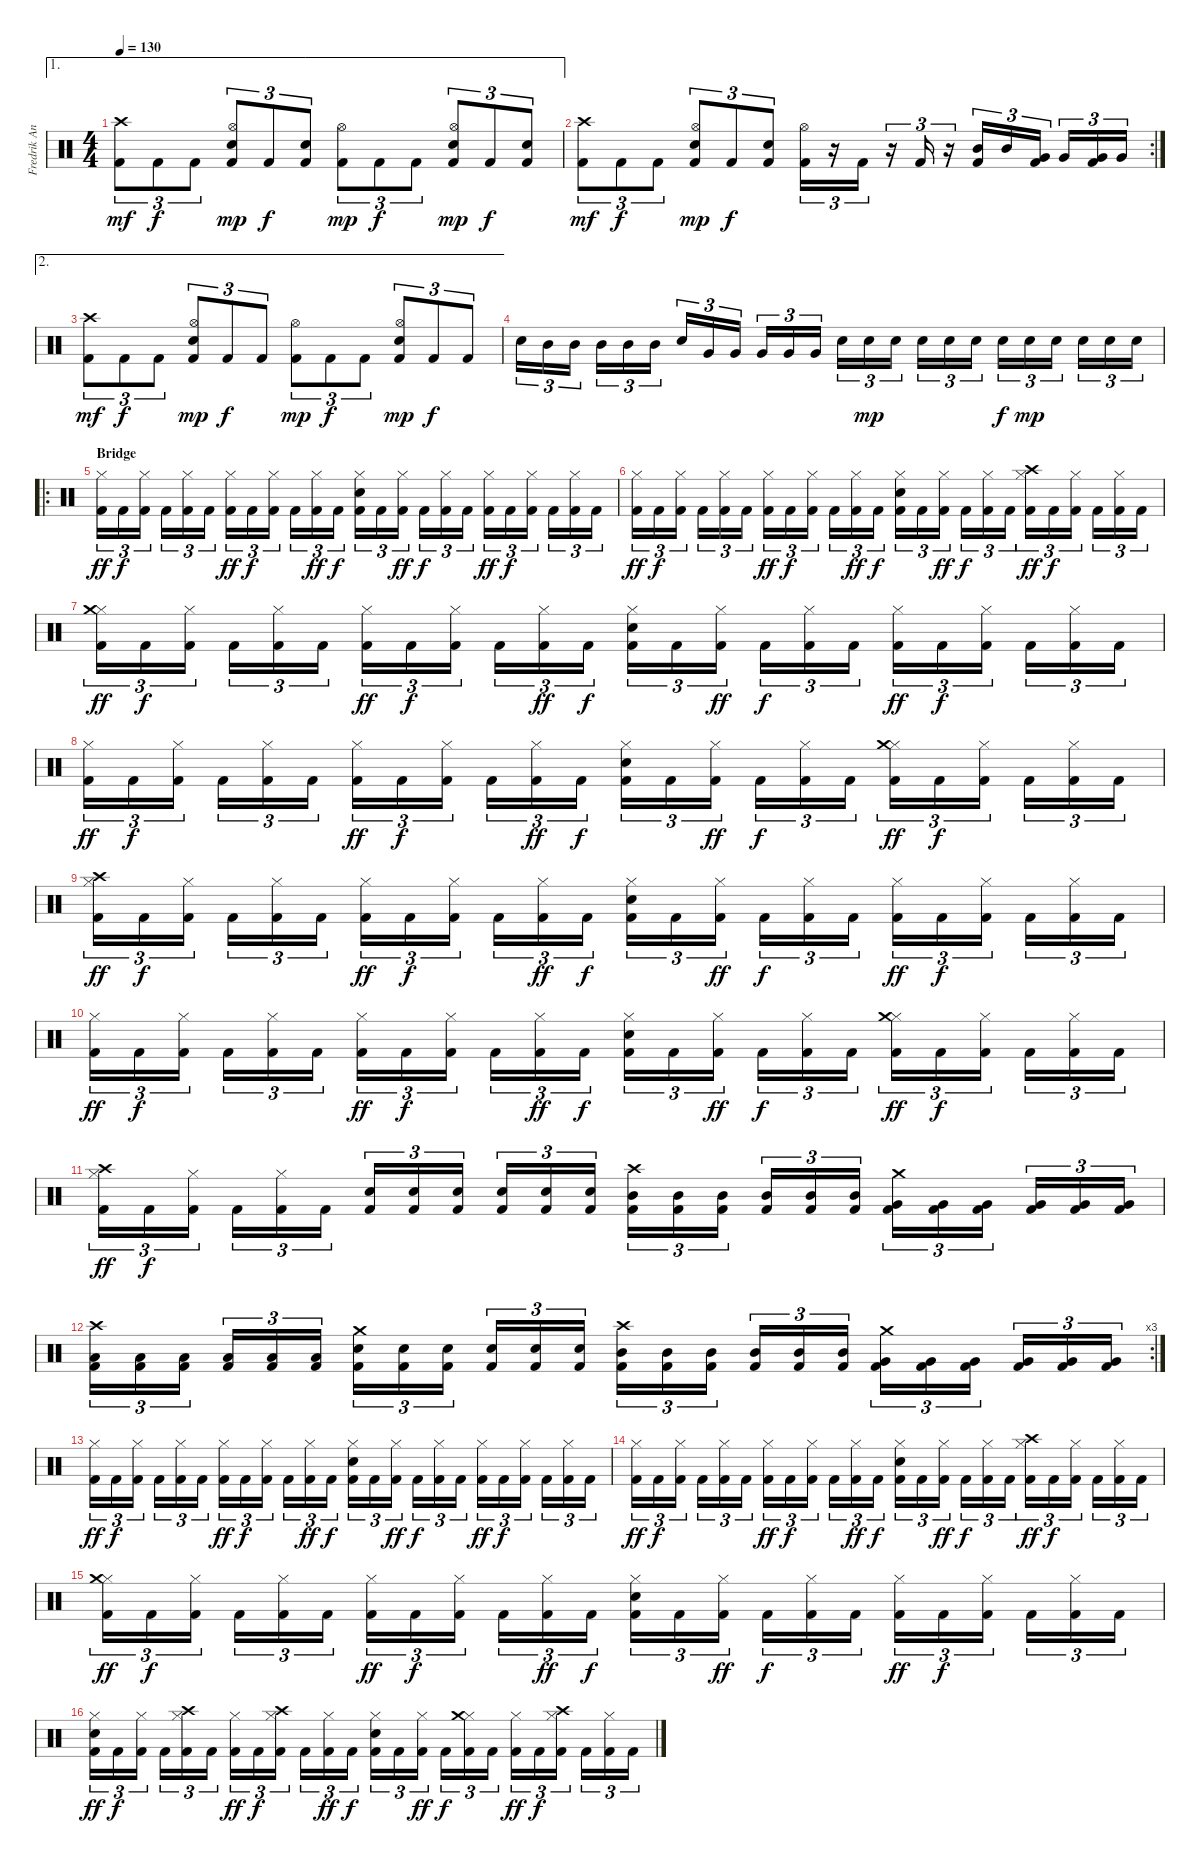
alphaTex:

\track ("Fredrik Andersson" "Fredrik An") {instrument percussion}
\staff {score}
\articulation defaults
\ae 1
\ts (4 4)
\tempo 130
\clef neutral
\ks c
("Crash high (hit)" "Kick (hit) 2").8{tu (3 2) dy mf} "Kick (hit) 2".8{tu (3 2) dy f} "Kick (hit) 2".8{tu (3 2)} ("Hi-Hat (open)" "Snare (hit) 2" "Kick (hit) 2").8{tu (3 2) dy mp} "Kick (hit) 2".8{tu (3 2) dy f} ("Snare (hit) 2" "Kick (hit) 2").8{tu (3 2)} ("Hi-Hat (open)" "Kick (hit) 2").8{tu (3 2) dy mp} "Kick (hit) 2".8{tu (3 2) dy f} "Kick (hit) 2".8{tu (3 2)} ("Hi-Hat (open)" "Snare (hit) 2" "Kick (hit) 2").8{tu (3 2) dy mp} "Kick (hit) 2".8{tu (3 2) dy f} ("Snare (hit) 2" "Kick (hit) 2").8{tu (3 2)} |
\rc 2
("Crash high (hit)" "Kick (hit) 2").8{tu (3 2) dy mf} "Kick (hit) 2".8{tu (3 2) dy f} "Kick (hit) 2".8{tu (3 2)} ("Hi-Hat (open)" "Snare (hit) 2" "Kick (hit) 2").8{tu (3 2) dy mp} "Kick (hit) 2".8{tu (3 2) dy f} ("Snare (hit) 2" "Kick (hit) 2").8{tu (3 2)} ("Hi-Hat (open)" "Kick (hit) 2").16{tu (3 2)} r.16{tu (3 2)} "Kick (hit) 2".16{tu (3 2)} r.16{tu (3 2)} "Kick (hit) 2".16{tu (3 2)} r.16{tu (3 2)} ("Mid Tom (hit)" "Kick (hit) 2").16{tu (3 2)} "Mid Tom (hit)".16{tu (3 2)} ("Very Low Tom (hit)" "Kick (hit) 2").16{tu (3 2)} "Very Low Tom (hit)".16{tu (3 2)} ("Very Low Tom (hit)" "Kick (hit) 2").16{tu (3 2)} "Very Low Tom (hit)".16{tu (3 2)} |
\ae 2
("Crash high (hit)" "Kick (hit) 2").8{tu (3 2) dy mf} "Kick (hit) 2".8{tu (3 2) dy f} "Kick (hit) 2".8{tu (3 2)} ("Hi-Hat (open)" "Snare (hit) 2" "Kick (hit) 2").8{tu (3 2) dy mp} "Kick (hit) 2".8{tu (3 2) dy f} "Kick (hit) 2".8{tu (3 2)} ("Hi-Hat (open)" "Kick (hit) 2").8{tu (3 2) dy mp} "Kick (hit) 2".8{tu (3 2) dy f} "Kick (hit) 2".8{tu (3 2)} ("Hi-Hat (open)" "Snare (hit) 2" "Kick (hit) 2").8{tu (3 2) dy mp} "Kick (hit) 2".8{tu (3 2) dy f} "Kick (hit) 2".8{tu (3 2)} |
"Snare (hit) 2".16{tu (3 2)} "Mid Tom (hit)".16{tu (3 2)} "Mid Tom (hit)".16{tu (3 2)} "Mid Tom (hit)".16{tu (3 2)} "Mid Tom (hit)".16{tu (3 2)} "Mid Tom (hit)".16{tu (3 2)} "Snare (hit) 2".16{tu (3 2)} "Very Low Tom (hit)".16{tu (3 2)} "Very Low Tom (hit)".16{tu (3 2)} "Very Low Tom (hit)".16{tu (3 2)} "Very Low Tom (hit)".16{tu (3 2)} "Very Low Tom (hit)".16{tu (3 2)} "Snare (hit) 2".16{tu (3 2)} "Snare (hit) 2".16{tu (3 2) dy mp} "Snare (hit) 2".16{tu (3 2)} "Snare (hit) 2".16{tu (3 2)} "Snare (hit) 2".16{tu (3 2)} "Snare (hit) 2".16{tu (3 2)} "Snare (hit) 2".16{tu (3 2) dy f} "Snare (hit) 2".16{tu (3 2) dy mp} "Snare (hit) 2".16{tu (3 2)} "Snare (hit) 2".16{tu (3 2)} "Snare (hit) 2".16{tu (3 2)} "Snare (hit) 2".16{tu (3 2)} |
\ro
\section ("" "Bridge")
("Hi-Hat (closed)" "Kick (hit) 2").16{tu (3 2) dy ff} "Kick (hit) 2".16{tu (3 2) dy f} ("Hi-Hat (closed)" "Kick (hit) 2").16{tu (3 2)} "Kick (hit) 2".16{tu (3 2)} ("Hi-Hat (closed)" "Kick (hit) 2").16{tu (3 2)} "Kick (hit) 2".16{tu (3 2)} ("Hi-Hat (closed)" "Kick (hit) 2").16{tu (3 2) dy ff} "Kick (hit) 2".16{tu (3 2) dy f} ("Hi-Hat (closed)" "Kick (hit) 2").16{tu (3 2)} "Kick (hit) 2".16{tu (3 2)} ("Hi-Hat (closed)" "Kick (hit) 2").16{tu (3 2) dy ff} "Kick (hit) 2".16{tu (3 2) dy f} ("Hi-Hat (closed)" "Snare (hit) 2" "Kick (hit) 2").16{tu (3 2)} "Kick (hit) 2".16{tu (3 2)} ("Hi-Hat (closed)" "Kick (hit) 2").16{tu (3 2) dy ff} "Kick (hit) 2".16{tu (3 2) dy f} ("Hi-Hat (closed)" "Kick (hit) 2").16{tu (3 2)} "Kick (hit) 2".16{tu (3 2)} ("Hi-Hat (closed)" "Kick (hit) 2").16{tu (3 2) dy ff} "Kick (hit) 2".16{tu (3 2) dy f} ("Hi-Hat (closed)" "Kick (hit) 2").16{tu (3 2)} "Kick (hit) 2".16{tu (3 2)} ("Hi-Hat (closed)" "Kick (hit) 2").16{tu (3 2)} "Kick (hit) 2".16{tu (3 2)} |
("Hi-Hat (closed)" "Kick (hit) 2").16{tu (3 2) dy ff} "Kick (hit) 2".16{tu (3 2) dy f} ("Hi-Hat (closed)" "Kick (hit) 2").16{tu (3 2)} "Kick (hit) 2".16{tu (3 2)} ("Hi-Hat (closed)" "Kick (hit) 2").16{tu (3 2)} "Kick (hit) 2".16{tu (3 2)} ("Hi-Hat (closed)" "Kick (hit) 2").16{tu (3 2) dy ff} "Kick (hit) 2".16{tu (3 2) dy f} ("Hi-Hat (closed)" "Kick (hit) 2").16{tu (3 2)} "Kick (hit) 2".16{tu (3 2)} ("Hi-Hat (closed)" "Kick (hit) 2").16{tu (3 2) dy ff} "Kick (hit) 2".16{tu (3 2) dy f} ("Hi-Hat (closed)" "Snare (hit) 2" "Kick (hit) 2").16{tu (3 2)} "Kick (hit) 2".16{tu (3 2)} ("Hi-Hat (closed)" "Kick (hit) 2").16{tu (3 2) dy ff} "Kick (hit) 2".16{tu (3 2) dy f} ("Hi-Hat (closed)" "Kick (hit) 2").16{tu (3 2)} "Kick (hit) 2".16{tu (3 2)} ("Hi-Hat (closed)" "Crash high (hit)" "Kick (hit) 2").16{tu (3 2) dy ff} "Kick (hit) 2".16{tu (3 2) dy f} ("Hi-Hat (closed)" "Kick (hit) 2").16{tu (3 2)} "Kick (hit) 2".16{tu (3 2)} ("Hi-Hat (closed)" "Kick (hit) 2").16{tu (3 2)} "Kick (hit) 2".16{tu (3 2)} |
("Hi-Hat (closed)" "Crash medium (hit)" "Kick (hit) 2").16{tu (3 2) dy ff} "Kick (hit) 2".16{tu (3 2) dy f} ("Hi-Hat (closed)" "Kick (hit) 2").16{tu (3 2)} "Kick (hit) 2".16{tu (3 2)} ("Hi-Hat (closed)" "Kick (hit) 2").16{tu (3 2)} "Kick (hit) 2".16{tu (3 2)} ("Hi-Hat (closed)" "Kick (hit) 2").16{tu (3 2) dy ff} "Kick (hit) 2".16{tu (3 2) dy f} ("Hi-Hat (closed)" "Kick (hit) 2").16{tu (3 2)} "Kick (hit) 2".16{tu (3 2)} ("Hi-Hat (closed)" "Kick (hit) 2").16{tu (3 2) dy ff} "Kick (hit) 2".16{tu (3 2) dy f} ("Hi-Hat (closed)" "Snare (hit) 2" "Kick (hit) 2").16{tu (3 2)} "Kick (hit) 2".16{tu (3 2)} ("Hi-Hat (closed)" "Kick (hit) 2").16{tu (3 2) dy ff} "Kick (hit) 2".16{tu (3 2) dy f} ("Hi-Hat (closed)" "Kick (hit) 2").16{tu (3 2)} "Kick (hit) 2".16{tu (3 2)} ("Hi-Hat (closed)" "Kick (hit) 2").16{tu (3 2) dy ff} "Kick (hit) 2".16{tu (3 2) dy f} ("Hi-Hat (closed)" "Kick (hit) 2").16{tu (3 2)} "Kick (hit) 2".16{tu (3 2)} ("Hi-Hat (closed)" "Kick (hit) 2").16{tu (3 2)} "Kick (hit) 2".16{tu (3 2)} |
("Hi-Hat (closed)" "Kick (hit) 2").16{tu (3 2) dy ff} "Kick (hit) 2".16{tu (3 2) dy f} ("Hi-Hat (closed)" "Kick (hit) 2").16{tu (3 2)} "Kick (hit) 2".16{tu (3 2)} ("Hi-Hat (closed)" "Kick (hit) 2").16{tu (3 2)} "Kick (hit) 2".16{tu (3 2)} ("Hi-Hat (closed)" "Kick (hit) 2").16{tu (3 2) dy ff} "Kick (hit) 2".16{tu (3 2) dy f} ("Hi-Hat (closed)" "Kick (hit) 2").16{tu (3 2)} "Kick (hit) 2".16{tu (3 2)} ("Hi-Hat (closed)" "Kick (hit) 2").16{tu (3 2) dy ff} "Kick (hit) 2".16{tu (3 2) dy f} ("Hi-Hat (closed)" "Snare (hit) 2" "Kick (hit) 2").16{tu (3 2)} "Kick (hit) 2".16{tu (3 2)} ("Hi-Hat (closed)" "Kick (hit) 2").16{tu (3 2) dy ff} "Kick (hit) 2".16{tu (3 2) dy f} ("Hi-Hat (closed)" "Kick (hit) 2").16{tu (3 2)} "Kick (hit) 2".16{tu (3 2)} ("Hi-Hat (closed)" "Crash medium (hit)" "Kick (hit) 2").16{tu (3 2) dy ff} "Kick (hit) 2".16{tu (3 2) dy f} ("Hi-Hat (closed)" "Kick (hit) 2").16{tu (3 2)} "Kick (hit) 2".16{tu (3 2)} ("Hi-Hat (closed)" "Kick (hit) 2").16{tu (3 2)} "Kick (hit) 2".16{tu (3 2)} |
("Hi-Hat (closed)" "Crash high (hit)" "Kick (hit) 2").16{tu (3 2) dy ff} "Kick (hit) 2".16{tu (3 2) dy f} ("Hi-Hat (closed)" "Kick (hit) 2").16{tu (3 2)} "Kick (hit) 2".16{tu (3 2)} ("Hi-Hat (closed)" "Kick (hit) 2").16{tu (3 2)} "Kick (hit) 2".16{tu (3 2)} ("Hi-Hat (closed)" "Kick (hit) 2").16{tu (3 2) dy ff} "Kick (hit) 2".16{tu (3 2) dy f} ("Hi-Hat (closed)" "Kick (hit) 2").16{tu (3 2)} "Kick (hit) 2".16{tu (3 2)} ("Hi-Hat (closed)" "Kick (hit) 2").16{tu (3 2) dy ff} "Kick (hit) 2".16{tu (3 2) dy f} ("Hi-Hat (closed)" "Snare (hit) 2" "Kick (hit) 2").16{tu (3 2)} "Kick (hit) 2".16{tu (3 2)} ("Hi-Hat (closed)" "Kick (hit) 2").16{tu (3 2) dy ff} "Kick (hit) 2".16{tu (3 2) dy f} ("Hi-Hat (closed)" "Kick (hit) 2").16{tu (3 2)} "Kick (hit) 2".16{tu (3 2)} ("Hi-Hat (closed)" "Kick (hit) 2").16{tu (3 2) dy ff} "Kick (hit) 2".16{tu (3 2) dy f} ("Hi-Hat (closed)" "Kick (hit) 2").16{tu (3 2)} "Kick (hit) 2".16{tu (3 2)} ("Hi-Hat (closed)" "Kick (hit) 2").16{tu (3 2)} "Kick (hit) 2".16{tu (3 2)} |
("Hi-Hat (closed)" "Kick (hit) 2").16{tu (3 2) dy ff} "Kick (hit) 2".16{tu (3 2) dy f} ("Hi-Hat (closed)" "Kick (hit) 2").16{tu (3 2)} "Kick (hit) 2".16{tu (3 2)} ("Hi-Hat (closed)" "Kick (hit) 2").16{tu (3 2)} "Kick (hit) 2".16{tu (3 2)} ("Hi-Hat (closed)" "Kick (hit) 2").16{tu (3 2) dy ff} "Kick (hit) 2".16{tu (3 2) dy f} ("Hi-Hat (closed)" "Kick (hit) 2").16{tu (3 2)} "Kick (hit) 2".16{tu (3 2)} ("Hi-Hat (closed)" "Kick (hit) 2").16{tu (3 2) dy ff} "Kick (hit) 2".16{tu (3 2) dy f} ("Hi-Hat (closed)" "Snare (hit) 2" "Kick (hit) 2").16{tu (3 2)} "Kick (hit) 2".16{tu (3 2)} ("Hi-Hat (closed)" "Kick (hit) 2").16{tu (3 2) dy ff} "Kick (hit) 2".16{tu (3 2) dy f} ("Hi-Hat (closed)" "Kick (hit) 2").16{tu (3 2)} "Kick (hit) 2".16{tu (3 2)} ("Hi-Hat (closed)" "Crash medium (hit)" "Kick (hit) 2").16{tu (3 2) dy ff} "Kick (hit) 2".16{tu (3 2) dy f} ("Hi-Hat (closed)" "Kick (hit) 2").16{tu (3 2)} "Kick (hit) 2".16{tu (3 2)} ("Hi-Hat (closed)" "Kick (hit) 2").16{tu (3 2)} "Kick (hit) 2".16{tu (3 2)} |
("Hi-Hat (closed)" "Crash high (hit)" "Kick (hit) 2").16{tu (3 2) dy ff} "Kick (hit) 2".16{tu (3 2) dy f} ("Hi-Hat (closed)" "Kick (hit) 2").16{tu (3 2)} "Kick (hit) 2".16{tu (3 2)} ("Hi-Hat (closed)" "Kick (hit) 2").16{tu (3 2)} "Kick (hit) 2".16{tu (3 2)} ("Snare (hit) 2" "Kick (hit) 2").16{tu (3 2)} ("Snare (hit) 2" "Kick (hit) 2").16{tu (3 2)} ("Snare (hit) 2" "Kick (hit) 2").16{tu (3 2)} ("Snare (hit) 2" "Kick (hit) 2").16{tu (3 2)} ("Snare (hit) 2" "Kick (hit) 2").16{tu (3 2)} ("Snare (hit) 2" "Kick (hit) 2").16{tu (3 2)} ("Crash high (hit)" "Mid Tom (hit)" "Kick (hit) 2").16{tu (3 2)} ("Mid Tom (hit)" "Kick (hit) 2").16{tu (3 2)} ("Mid Tom (hit)" "Kick (hit) 2").16{tu (3 2)} ("Mid Tom (hit)" "Kick (hit) 2").16{tu (3 2)} ("Mid Tom (hit)" "Kick (hit) 2").16{tu (3 2)} ("Mid Tom (hit)" "Kick (hit) 2").16{tu (3 2)} ("Crash medium (hit)" "Very Low Tom (hit)" "Kick (hit) 2").16{tu (3 2)} ("Very Low Tom (hit)" "Kick (hit) 2").16{tu (3 2)} ("Very Low Tom (hit)" "Kick (hit) 2").16{tu (3 2)} ("Very Low Tom (hit)" "Kick (hit) 2").16{tu (3 2)} ("Very Low Tom (hit)" "Kick (hit) 2").16{tu (3 2)} ("Very Low Tom (hit)" "Kick (hit) 2").16{tu (3 2)} |
\rc 3
("Crash high (hit)" "Low Floor Tom (hit)" "Kick (hit) 2").16{tu (3 2)} ("Low Floor Tom (hit)" "Kick (hit) 2").16{tu (3 2)} ("Low Floor Tom (hit)" "Kick (hit) 2").16{tu (3 2)} ("Low Floor Tom (hit)" "Kick (hit) 2").16{tu (3 2)} ("Low Floor Tom (hit)" "Kick (hit) 2").16{tu (3 2)} ("Low Floor Tom (hit)" "Kick (hit) 2").16{tu (3 2)} ("Crash medium (hit)" "Snare (hit) 2" "Kick (hit) 2").16{tu (3 2)} ("Snare (hit) 2" "Kick (hit) 2").16{tu (3 2)} ("Snare (hit) 2" "Kick (hit) 2").16{tu (3 2)} ("Snare (hit) 2" "Kick (hit) 2").16{tu (3 2)} ("Snare (hit) 2" "Kick (hit) 2").16{tu (3 2)} ("Snare (hit) 2" "Kick (hit) 2").16{tu (3 2)} ("Crash high (hit)" "Mid Tom (hit)" "Kick (hit) 2").16{tu (3 2)} ("Mid Tom (hit)" "Kick (hit) 2").16{tu (3 2)} ("Mid Tom (hit)" "Kick (hit) 2").16{tu (3 2)} ("Mid Tom (hit)" "Kick (hit) 2").16{tu (3 2)} ("Mid Tom (hit)" "Kick (hit) 2").16{tu (3 2)} ("Mid Tom (hit)" "Kick (hit) 2").16{tu (3 2)} ("Crash medium (hit)" "Very Low Tom (hit)" "Kick (hit) 2").16{tu (3 2)} ("Very Low Tom (hit)" "Kick (hit) 2").16{tu (3 2)} ("Very Low Tom (hit)" "Kick (hit) 2").16{tu (3 2)} ("Very Low Tom (hit)" "Kick (hit) 2").16{tu (3 2)} ("Very Low Tom (hit)" "Kick (hit) 2").16{tu (3 2)} ("Very Low Tom (hit)" "Kick (hit) 2").16{tu (3 2)} |
("Hi-Hat (closed)" "Kick (hit) 2").16{tu (3 2) dy ff} "Kick (hit) 2".16{tu (3 2) dy f} ("Hi-Hat (closed)" "Kick (hit) 2").16{tu (3 2)} "Kick (hit) 2".16{tu (3 2)} ("Hi-Hat (closed)" "Kick (hit) 2").16{tu (3 2)} "Kick (hit) 2".16{tu (3 2)} ("Hi-Hat (closed)" "Kick (hit) 2").16{tu (3 2) dy ff} "Kick (hit) 2".16{tu (3 2) dy f} ("Hi-Hat (closed)" "Kick (hit) 2").16{tu (3 2)} "Kick (hit) 2".16{tu (3 2)} ("Hi-Hat (closed)" "Kick (hit) 2").16{tu (3 2) dy ff} "Kick (hit) 2".16{tu (3 2) dy f} ("Hi-Hat (closed)" "Snare (hit) 2" "Kick (hit) 2").16{tu (3 2)} "Kick (hit) 2".16{tu (3 2)} ("Hi-Hat (closed)" "Kick (hit) 2").16{tu (3 2) dy ff} "Kick (hit) 2".16{tu (3 2) dy f} ("Hi-Hat (closed)" "Kick (hit) 2").16{tu (3 2)} "Kick (hit) 2".16{tu (3 2)} ("Hi-Hat (closed)" "Kick (hit) 2").16{tu (3 2) dy ff} "Kick (hit) 2".16{tu (3 2) dy f} ("Hi-Hat (closed)" "Kick (hit) 2").16{tu (3 2)} "Kick (hit) 2".16{tu (3 2)} ("Hi-Hat (closed)" "Kick (hit) 2").16{tu (3 2)} "Kick (hit) 2".16{tu (3 2)} |
("Hi-Hat (closed)" "Kick (hit) 2").16{tu (3 2) dy ff} "Kick (hit) 2".16{tu (3 2) dy f} ("Hi-Hat (closed)" "Kick (hit) 2").16{tu (3 2)} "Kick (hit) 2".16{tu (3 2)} ("Hi-Hat (closed)" "Kick (hit) 2").16{tu (3 2)} "Kick (hit) 2".16{tu (3 2)} ("Hi-Hat (closed)" "Kick (hit) 2").16{tu (3 2) dy ff} "Kick (hit) 2".16{tu (3 2) dy f} ("Hi-Hat (closed)" "Kick (hit) 2").16{tu (3 2)} "Kick (hit) 2".16{tu (3 2)} ("Hi-Hat (closed)" "Kick (hit) 2").16{tu (3 2) dy ff} "Kick (hit) 2".16{tu (3 2) dy f} ("Hi-Hat (closed)" "Snare (hit) 2" "Kick (hit) 2").16{tu (3 2)} "Kick (hit) 2".16{tu (3 2)} ("Hi-Hat (closed)" "Kick (hit) 2").16{tu (3 2) dy ff} "Kick (hit) 2".16{tu (3 2) dy f} ("Hi-Hat (closed)" "Kick (hit) 2").16{tu (3 2)} "Kick (hit) 2".16{tu (3 2)} ("Hi-Hat (closed)" "Crash high (hit)" "Kick (hit) 2").16{tu (3 2) dy ff} "Kick (hit) 2".16{tu (3 2) dy f} ("Hi-Hat (closed)" "Kick (hit) 2").16{tu (3 2)} "Kick (hit) 2".16{tu (3 2)} ("Hi-Hat (closed)" "Kick (hit) 2").16{tu (3 2)} "Kick (hit) 2".16{tu (3 2)} |
("Hi-Hat (closed)" "Crash medium (hit)" "Kick (hit) 2").16{tu (3 2) dy ff} "Kick (hit) 2".16{tu (3 2) dy f} ("Hi-Hat (closed)" "Kick (hit) 2").16{tu (3 2)} "Kick (hit) 2".16{tu (3 2)} ("Hi-Hat (closed)" "Kick (hit) 2").16{tu (3 2)} "Kick (hit) 2".16{tu (3 2)} ("Hi-Hat (closed)" "Kick (hit) 2").16{tu (3 2) dy ff} "Kick (hit) 2".16{tu (3 2) dy f} ("Hi-Hat (closed)" "Kick (hit) 2").16{tu (3 2)} "Kick (hit) 2".16{tu (3 2)} ("Hi-Hat (closed)" "Kick (hit) 2").16{tu (3 2) dy ff} "Kick (hit) 2".16{tu (3 2) dy f} ("Hi-Hat (closed)" "Snare (hit) 2" "Kick (hit) 2").16{tu (3 2)} "Kick (hit) 2".16{tu (3 2)} ("Hi-Hat (closed)" "Kick (hit) 2").16{tu (3 2) dy ff} "Kick (hit) 2".16{tu (3 2) dy f} ("Hi-Hat (closed)" "Kick (hit) 2").16{tu (3 2)} "Kick (hit) 2".16{tu (3 2)} ("Hi-Hat (closed)" "Kick (hit) 2").16{tu (3 2) dy ff} "Kick (hit) 2".16{tu (3 2) dy f} ("Hi-Hat (closed)" "Kick (hit) 2").16{tu (3 2)} "Kick (hit) 2".16{tu (3 2)} ("Hi-Hat (closed)" "Kick (hit) 2").16{tu (3 2)} "Kick (hit) 2".16{tu (3 2)} |
("Hi-Hat (closed)" "Snare (hit) 2" "Kick (hit) 2").16{tu (3 2) dy ff} "Kick (hit) 2".16{tu (3 2) dy f} ("Hi-Hat (closed)" "Kick (hit) 2").16{tu (3 2)} "Kick (hit) 2".16{tu (3 2)} ("Hi-Hat (closed)" "Crash high (hit)" "Kick (hit) 2").16{tu (3 2)} "Kick (hit) 2".16{tu (3 2)} ("Hi-Hat (closed)" "Kick (hit) 2").16{tu (3 2) dy ff} "Kick (hit) 2".16{tu (3 2) dy f} ("Hi-Hat (closed)" "Crash high (hit)" "Kick (hit) 2").16{tu (3 2)} "Kick (hit) 2".16{tu (3 2)} ("Hi-Hat (closed)" "Kick (hit) 2").16{tu (3 2) dy ff} "Kick (hit) 2".16{tu (3 2) dy f} ("Hi-Hat (closed)" "Snare (hit) 2" "Kick (hit) 2").16{tu (3 2)} "Kick (hit) 2".16{tu (3 2)} ("Hi-Hat (closed)" "Kick (hit) 2").16{tu (3 2) dy ff} "Kick (hit) 2".16{tu (3 2) dy f} ("Hi-Hat (closed)" "Crash medium (hit)" "Kick (hit) 2").16{tu (3 2)} "Kick (hit) 2".16{tu (3 2)} ("Hi-Hat (closed)" "Kick (hit) 2").16{tu (3 2) dy ff} "Kick (hit) 2".16{tu (3 2) dy f} ("Hi-Hat (closed)" "Crash high (hit)" "Kick (hit) 2").16{tu (3 2)} "Kick (hit) 2".16{tu (3 2)} ("Hi-Hat (closed)" "Kick (hit) 2").16{tu (3 2)} "Kick (hit) 2".16{tu (3 2)}
